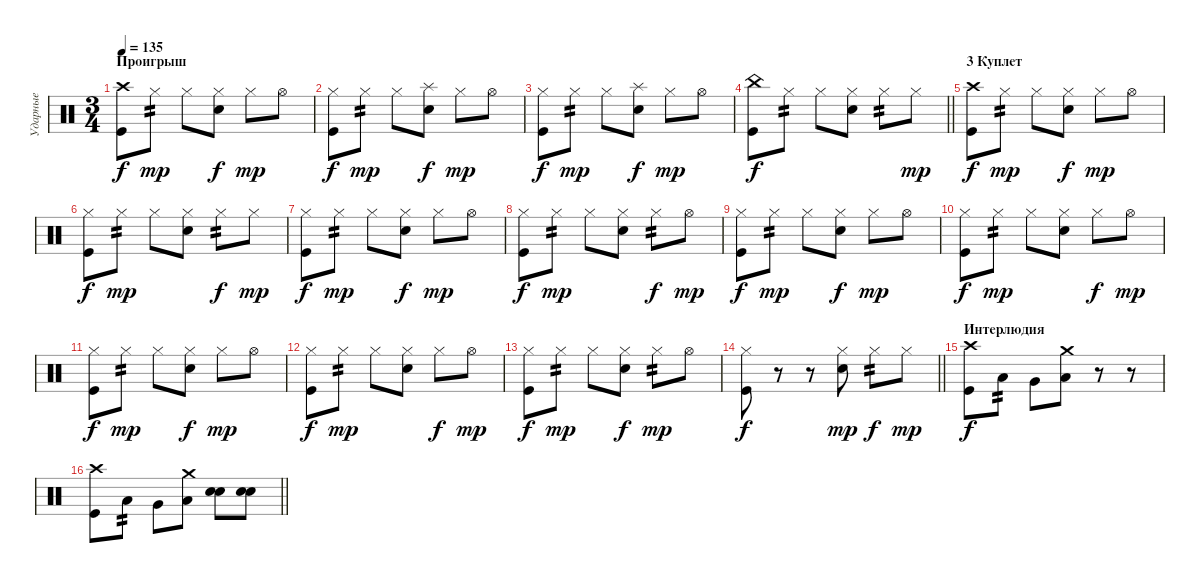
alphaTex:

\track ("Ударные" "Ударные") {instrument percussion}
\staff {score}
\articulation defaults
\ts (3 4)
\section ("" "Проигрыш")
\tempo 135
\clef neutral
\ks c
("Crash high (hit)" "Kick (hit)").8{dy f} "Hi-Hat (closed)".8{tp 2 dy mp} "Hi-Hat (closed)".8 ("Hi-Hat (closed)" "Snare (hit) 2").8{dy f} "Hi-Hat (closed)".8{dy mp} "Hi-Hat (open)".8 |
("Hi-Hat (closed)" "Kick (hit)").8{dy f} "Hi-Hat (closed)".8{tp 2 dy mp} "Hi-Hat (closed)".8 ("Splash (hit)" "Snare (hit) 2").8{dy f} "Hi-Hat (closed)".8{dy mp} "Hi-Hat (open)".8 |
("Hi-Hat (closed)" "Kick (hit)").8{dy f} "Hi-Hat (closed)".8{tp 2 dy mp} "Hi-Hat (closed)".8 ("Splash (hit)" "Snare (hit) 2").8{dy f} "Hi-Hat (closed)".8{dy mp} "Hi-Hat (open)".8 |
\barLineRight lightlight
("China (hit)" "Kick (hit)").8{dy f} "Hi-Hat (closed)".8{tp 2} "Hi-Hat (closed)".8 ("Hi-Hat (closed)" "Snare (hit) 2").8 "Hi-Hat (closed)".8{tp 2} "Hi-Hat (closed)".8{dy mp} |
\section ("" "3 Куплет")
("Crash high (hit)" "Kick (hit)").8{dy f} "Hi-Hat (closed)".8{tp 2 dy mp} "Hi-Hat (closed)".8 ("Hi-Hat (closed)" "Snare (hit) 2").8{dy f} "Hi-Hat (closed)".8{dy mp} "Hi-Hat (open)".8 |
("Hi-Hat (closed)" "Kick (hit)").8{dy f} "Hi-Hat (closed)".8{tp 2 dy mp} "Hi-Hat (closed)".8 ("Hi-Hat (closed)" "Snare (hit) 2").8 "Hi-Hat (closed)".8{tp 2 dy f} "Hi-Hat (closed)".8{dy mp} |
("Hi-Hat (closed)" "Kick (hit)").8{dy f} "Hi-Hat (closed)".8{tp 2 dy mp} "Hi-Hat (closed)".8 ("Hi-Hat (closed)" "Snare (hit) 2").8{dy f} "Hi-Hat (closed)".8{dy mp} "Hi-Hat (open)".8 |
("Hi-Hat (closed)" "Kick (hit)").8{dy f} "Hi-Hat (closed)".8{tp 2 dy mp} "Hi-Hat (closed)".8 ("Hi-Hat (closed)" "Snare (hit) 2").8 "Hi-Hat (closed)".8{tp 2 dy f} "Hi-Hat (open)".8{dy mp} |
("Hi-Hat (closed)" "Kick (hit)").8{dy f} "Hi-Hat (closed)".8{tp 2 dy mp} "Hi-Hat (closed)".8 ("Hi-Hat (closed)" "Snare (hit) 2").8{dy f} "Hi-Hat (closed)".8{dy mp} "Hi-Hat (open)".8 |
("Hi-Hat (closed)" "Kick (hit)").8{dy f} "Hi-Hat (closed)".8{tp 2 dy mp} "Hi-Hat (closed)".8 ("Hi-Hat (closed)" "Snare (hit) 2").8 "Hi-Hat (closed)".8{dy f} "Hi-Hat (open)".8{dy mp} |
("Hi-Hat (closed)" "Kick (hit)").8{dy f} "Hi-Hat (closed)".8{tp 2 dy mp} "Hi-Hat (closed)".8 ("Hi-Hat (closed)" "Snare (hit) 2").8{dy f} "Hi-Hat (closed)".8{dy mp} "Hi-Hat (open)".8 |
("Hi-Hat (closed)" "Kick (hit)").8{dy f} "Hi-Hat (closed)".8{tp 2 dy mp} "Hi-Hat (closed)".8 ("Hi-Hat (closed)" "Snare (hit) 2").8 "Hi-Hat (closed)".8{dy f} "Hi-Hat (open)".8{dy mp} |
("Hi-Hat (closed)" "Kick (hit)").8{dy f} "Hi-Hat (closed)".8{tp 2 dy mp} "Hi-Hat (closed)".8 ("Hi-Hat (closed)" "Snare (hit) 2").8{dy f} "Hi-Hat (closed)".8{tp 2 dy mp} "Hi-Hat (open)".8 |
\barLineRight lightlight
("Hi-Hat (closed)" "Kick (hit)").8{dy f} r.8 r.8 ("Hi-Hat (closed)" "Snare (hit) 2").8{dy mp} "Hi-Hat (closed)".8{tp 2 dy f} "Hi-Hat (closed)".8{dy mp} |
\section ("" "Интерлюдия")
("Crash high (hit)" "Kick (hit)").8{dy f} "Low Tom (hit)".8{tp 2} "Very Low Tom (hit)".8 ("Crash medium (hit)" "Low Floor Tom (hit)").8 r.8 r.8 |
\barLineRight lightlight
("Crash high (hit)" "Kick (hit)").8 "Low Tom (hit)".8{tp 2} "Very Low Tom (hit)".8 ("Crash medium (hit)" "Low Floor Tom (hit)").8 ("Snare (hit) 2" "Snare (hit) 2").8{bd 120} ("Snare (hit) 2" "Snare (hit) 2").8{bd 120}
